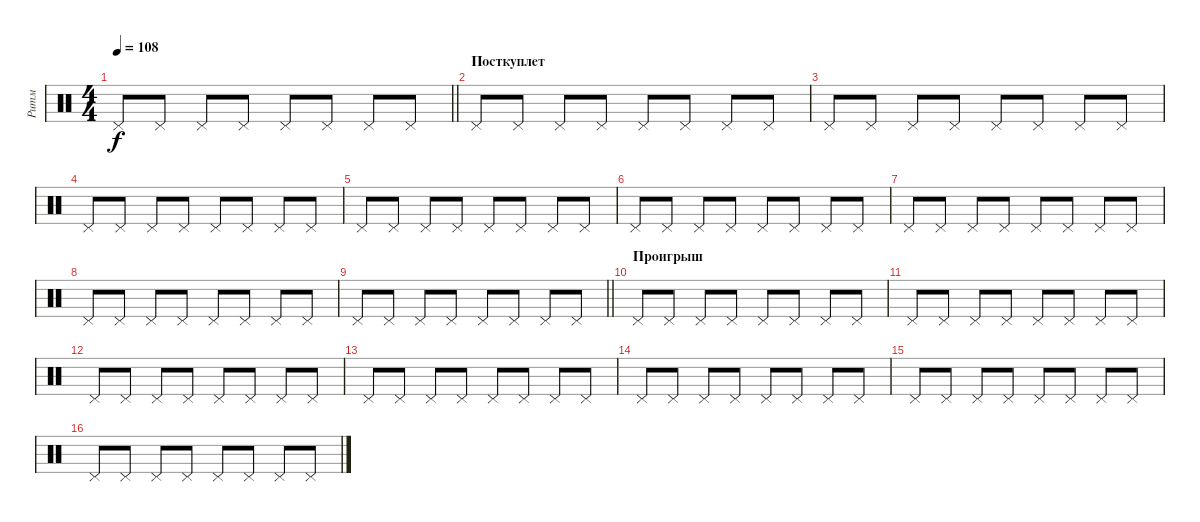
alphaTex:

\track ("Ритм" "Ритм") {instrument percussion}
\staff {score}
\articulation defaults
\ts (4 4)
\tempo 108
\clef neutral
\barLineRight lightlight
\ks c "Pedal Hi-Hat (hit)".8{dy f} "Pedal Hi-Hat (hit)".8 "Pedal Hi-Hat (hit)".8 "Pedal Hi-Hat (hit)".8 "Pedal Hi-Hat (hit)".8 "Pedal Hi-Hat (hit)".8 "Pedal Hi-Hat (hit)".8 "Pedal Hi-Hat (hit)".8
|
\section ("" "Посткуплет")
"Pedal Hi-Hat (hit)".8 "Pedal Hi-Hat (hit)".8 "Pedal Hi-Hat (hit)".8 "Pedal Hi-Hat (hit)".8 "Pedal Hi-Hat (hit)".8 "Pedal Hi-Hat (hit)".8 "Pedal Hi-Hat (hit)".8 "Pedal Hi-Hat (hit)".8 |
"Pedal Hi-Hat (hit)".8 "Pedal Hi-Hat (hit)".8 "Pedal Hi-Hat (hit)".8 "Pedal Hi-Hat (hit)".8 "Pedal Hi-Hat (hit)".8 "Pedal Hi-Hat (hit)".8 "Pedal Hi-Hat (hit)".8 "Pedal Hi-Hat (hit)".8 |
"Pedal Hi-Hat (hit)".8 "Pedal Hi-Hat (hit)".8 "Pedal Hi-Hat (hit)".8 "Pedal Hi-Hat (hit)".8 "Pedal Hi-Hat (hit)".8 "Pedal Hi-Hat (hit)".8 "Pedal Hi-Hat (hit)".8 "Pedal Hi-Hat (hit)".8 |
"Pedal Hi-Hat (hit)".8 "Pedal Hi-Hat (hit)".8 "Pedal Hi-Hat (hit)".8 "Pedal Hi-Hat (hit)".8 "Pedal Hi-Hat (hit)".8 "Pedal Hi-Hat (hit)".8 "Pedal Hi-Hat (hit)".8 "Pedal Hi-Hat (hit)".8 |
"Pedal Hi-Hat (hit)".8 "Pedal Hi-Hat (hit)".8 "Pedal Hi-Hat (hit)".8 "Pedal Hi-Hat (hit)".8 "Pedal Hi-Hat (hit)".8 "Pedal Hi-Hat (hit)".8 "Pedal Hi-Hat (hit)".8 "Pedal Hi-Hat (hit)".8 |
"Pedal Hi-Hat (hit)".8 "Pedal Hi-Hat (hit)".8 "Pedal Hi-Hat (hit)".8 "Pedal Hi-Hat (hit)".8 "Pedal Hi-Hat (hit)".8 "Pedal Hi-Hat (hit)".8 "Pedal Hi-Hat (hit)".8 "Pedal Hi-Hat (hit)".8 |
"Pedal Hi-Hat (hit)".8 "Pedal Hi-Hat (hit)".8 "Pedal Hi-Hat (hit)".8 "Pedal Hi-Hat (hit)".8 "Pedal Hi-Hat (hit)".8 "Pedal Hi-Hat (hit)".8 "Pedal Hi-Hat (hit)".8 "Pedal Hi-Hat (hit)".8 |
\barLineRight lightlight "Pedal Hi-Hat (hit)".8 "Pedal Hi-Hat (hit)".8 "Pedal Hi-Hat (hit)".8 "Pedal Hi-Hat (hit)".8 "Pedal Hi-Hat (hit)".8 "Pedal Hi-Hat (hit)".8 "Pedal Hi-Hat (hit)".8 "Pedal Hi-Hat (hit)".8
|
\section ("" "Проигрыш")
"Pedal Hi-Hat (hit)".8 "Pedal Hi-Hat (hit)".8 "Pedal Hi-Hat (hit)".8 "Pedal Hi-Hat (hit)".8 "Pedal Hi-Hat (hit)".8 "Pedal Hi-Hat (hit)".8 "Pedal Hi-Hat (hit)".8 "Pedal Hi-Hat (hit)".8 |
"Pedal Hi-Hat (hit)".8 "Pedal Hi-Hat (hit)".8 "Pedal Hi-Hat (hit)".8 "Pedal Hi-Hat (hit)".8 "Pedal Hi-Hat (hit)".8 "Pedal Hi-Hat (hit)".8 "Pedal Hi-Hat (hit)".8 "Pedal Hi-Hat (hit)".8 |
"Pedal Hi-Hat (hit)".8 "Pedal Hi-Hat (hit)".8 "Pedal Hi-Hat (hit)".8 "Pedal Hi-Hat (hit)".8 "Pedal Hi-Hat (hit)".8 "Pedal Hi-Hat (hit)".8 "Pedal Hi-Hat (hit)".8 "Pedal Hi-Hat (hit)".8 |
"Pedal Hi-Hat (hit)".8 "Pedal Hi-Hat (hit)".8 "Pedal Hi-Hat (hit)".8 "Pedal Hi-Hat (hit)".8 "Pedal Hi-Hat (hit)".8 "Pedal Hi-Hat (hit)".8 "Pedal Hi-Hat (hit)".8 "Pedal Hi-Hat (hit)".8 |
"Pedal Hi-Hat (hit)".8 "Pedal Hi-Hat (hit)".8 "Pedal Hi-Hat (hit)".8 "Pedal Hi-Hat (hit)".8 "Pedal Hi-Hat (hit)".8 "Pedal Hi-Hat (hit)".8 "Pedal Hi-Hat (hit)".8 "Pedal Hi-Hat (hit)".8 |
"Pedal Hi-Hat (hit)".8 "Pedal Hi-Hat (hit)".8 "Pedal Hi-Hat (hit)".8 "Pedal Hi-Hat (hit)".8 "Pedal Hi-Hat (hit)".8 "Pedal Hi-Hat (hit)".8 "Pedal Hi-Hat (hit)".8 "Pedal Hi-Hat (hit)".8 |
"Pedal Hi-Hat (hit)".8 "Pedal Hi-Hat (hit)".8 "Pedal Hi-Hat (hit)".8 "Pedal Hi-Hat (hit)".8 "Pedal Hi-Hat (hit)".8 "Pedal Hi-Hat (hit)".8 "Pedal Hi-Hat (hit)".8 "Pedal Hi-Hat (hit)".8
